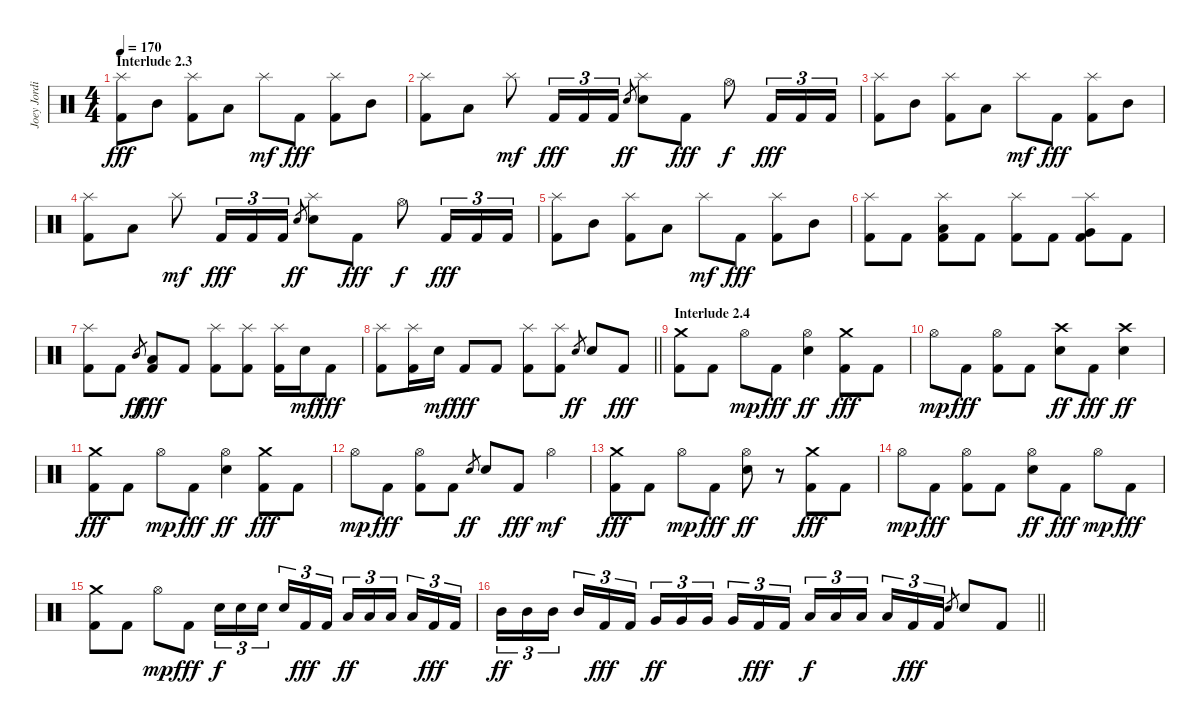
\track ("Joey Jordison" "Joey Jordi") {instrument percussion}
\staff {score}
\articulation defaults
\ts (4 4)
\section ("" "Interlude 2.3")
\tempo 170
\clef neutral
\ks c
("Splash (hit)" "Kick (hit) 2").8{dy fff} "Mid Tom (hit)".8 ("Splash (hit)" "Kick (hit) 2").8 "Low Tom (hit)".8 "Splash (hit)".8{dy mf} "Kick (hit) 2".8{dy fff} ("Splash (hit)" "Kick (hit) 2").8 "Mid Tom (hit)".8 |
("Splash (hit)" "Kick (hit) 2").8 "Low Tom (hit)".8 "Splash (hit)".8{dy mf} "Kick (hit) 2".16{tu (3 2) dy fff} "Kick (hit) 2".16{tu (3 2)} "Kick (hit) 2".16{tu (3 2)} "Electric Snare (hit)".8{gr dy ff} ("Splash (hit)" "Electric Snare (hit)").8 "Kick (hit) 2".8{dy fff} "Hi-Hat (open)".8{dy f} "Kick (hit) 2".16{tu (3 2) dy fff} "Kick (hit) 2".16{tu (3 2)} "Kick (hit) 2".16{tu (3 2)} |
("Splash (hit)" "Kick (hit) 2").8 "Mid Tom (hit)".8 ("Splash (hit)" "Kick (hit) 2").8 "Low Tom (hit)".8 "Splash (hit)".8{dy mf} "Kick (hit) 2".8{dy fff} ("Splash (hit)" "Kick (hit) 2").8 "Mid Tom (hit)".8 |
("Splash (hit)" "Kick (hit) 2").8 "Low Tom (hit)".8 "Splash (hit)".8{dy mf} "Kick (hit) 2".16{tu (3 2) dy fff} "Kick (hit) 2".16{tu (3 2)} "Kick (hit) 2".16{tu (3 2)} "Electric Snare (hit)".8{gr dy ff} ("Splash (hit)" "Electric Snare (hit)").8 "Kick (hit) 2".8{dy fff} "Hi-Hat (open)".8{dy f} "Kick (hit) 2".16{tu (3 2) dy fff} "Kick (hit) 2".16{tu (3 2)} "Kick (hit) 2".16{tu (3 2)} |
("Splash (hit)" "Kick (hit) 2").8 "Mid Tom (hit)".8 ("Splash (hit)" "Kick (hit) 2").8 "Low Tom (hit)".8 "Splash (hit)".8{dy mf} "Kick (hit) 2".8{dy fff} ("Splash (hit)" "Kick (hit) 2").8 "Mid Tom (hit)".8 |
("Splash (hit)" "Kick (hit) 2").8 "Kick (hit) 2".8 ("Splash (hit)" "Low Tom (hit)" "Kick (hit) 2").8 "Kick (hit) 2".8 ("Splash (hit)" "Kick (hit) 2").8 "Kick (hit) 2".8 ("Splash (hit)" "Very Low Tom (hit)" "Kick (hit) 2").8 "Kick (hit) 2".8 |
("Splash (hit)" "Kick (hit) 2").8 "Kick (hit) 2".8 "Mid Tom (hit)".8{gr dy ff} ("Low Tom (hit)" "Kick (hit) 2").8{dy fff} "Kick (hit) 2".8 ("Splash (hit)" "Kick (hit) 2").8 ("Splash (hit)" "Kick (hit) 2").8 ("Splash (hit)" "Kick (hit) 2").16 "Electric Snare (hit)".16{dy mf} "Kick (hit) 2".8{dy fff} |
\barLineRight lightlight
("Splash (hit)" "Kick (hit) 2").8 ("Splash (hit)" "Kick (hit) 2").16 "Electric Snare (hit)".16{dy mf} "Kick (hit) 2".8{dy fff} "Kick (hit) 2".8 ("Splash (hit)" "Kick (hit) 2").8 ("Splash (hit)" "Kick (hit) 2").8 "Electric Snare (hit)".8{gr dy ff} "Electric Snare (hit)".8 "Kick (hit) 2".8{dy fff} |
\section ("" "Interlude 2.4")
("Crash medium (hit)" "Kick (hit) 2").8 "Kick (hit) 2".8 "Hi-Hat (open)".8{dy mp} "Kick (hit) 2".8{dy fff} ("Hi-Hat (open)" "Electric Snare (hit)").4{dy ff} ("Crash medium (hit)" "Kick (hit) 2").8{dy fff} "Kick (hit) 2".8 |
"Hi-Hat (open)".8{dy mp} "Kick (hit) 2".8{dy fff} ("Hi-Hat (open)" "Kick (hit) 2").8 "Kick (hit) 2".8 ("Crash high (hit)" "Electric Snare (hit)").8{dy ff} "Kick (hit) 2".8{dy fff} ("Crash high (hit)" "Electric Snare (hit)").4{dy ff} |
("Crash medium (hit)" "Kick (hit) 2").8{dy fff} "Kick (hit) 2".8 "Hi-Hat (open)".8{dy mp} "Kick (hit) 2".8{dy fff} ("Hi-Hat (open)" "Electric Snare (hit)").4{dy ff} ("Crash medium (hit)" "Kick (hit) 2").8{dy fff} "Kick (hit) 2".8 |
"Hi-Hat (open)".8{dy mp} "Kick (hit) 2".8{dy fff} ("Hi-Hat (open)" "Kick (hit) 2").8 "Kick (hit) 2".8 "Electric Snare (hit)".8{gr dy ff} "Electric Snare (hit)".8 "Kick (hit) 2".8{dy fff} "Hi-Hat (open)".4{dy mf} |
("Crash medium (hit)" "Kick (hit) 2").8{dy fff} "Kick (hit) 2".8 "Hi-Hat (open)".8{dy mp} "Kick (hit) 2".8{dy fff} ("Hi-Hat (open)" "Electric Snare (hit)").8{dy ff} r.8 ("Crash medium (hit)" "Kick (hit) 2").8{dy fff} "Kick (hit) 2".8 |
"Hi-Hat (open)".8{dy mp} "Kick (hit) 2".8{dy fff} ("Hi-Hat (open)" "Kick (hit) 2").8 "Kick (hit) 2".8 ("Hi-Hat (open)" "Electric Snare (hit)").8{dy ff} "Kick (hit) 2".8{dy fff} "Hi-Hat (open)".8{dy mp} "Kick (hit) 2".8{dy fff} |
("Crash medium (hit)" "Kick (hit) 2").8 "Kick (hit) 2".8 "Hi-Hat (open)".8{dy mp} "Kick (hit) 2".8{dy fff} "Electric Snare (hit)".16{tu (3 2) dy f} "Electric Snare (hit)".16{tu (3 2)} "Electric Snare (hit)".16{tu (3 2) beam splitsecondary} "Electric Snare (hit)".16{tu (3 2)} "Kick (hit) 2".16{tu (3 2) dy fff} "Kick (hit) 2".16{tu (3 2)} "Low Tom (hit)".16{tu (3 2) dy ff} "Low Tom (hit)".16{tu (3 2)} "Low Tom (hit)".16{tu (3 2) beam splitsecondary} "Low Tom (hit)".16{tu (3 2)} "Kick (hit) 2".16{tu (3 2) dy fff} "Kick (hit) 2".16{tu (3 2)} |
\barLineRight lightlight "Mid Tom (hit)".16{tu (3 2) dy ff} "Mid Tom (hit)".16{tu (3 2)} "Mid Tom (hit)".16{tu (3 2) beam splitsecondary} "Mid Tom (hit)".16{tu (3 2)} "Kick (hit) 2".16{tu (3 2) dy fff} "Kick (hit) 2".16{tu (3 2)} "Very Low Tom (hit)".16{tu (3 2) dy ff} "Very Low Tom (hit)".16{tu (3 2)} "Very Low Tom (hit)".16{tu (3 2) beam splitsecondary} "Very Low Tom (hit)".16{tu (3 2)} "Kick (hit) 2".16{tu (3 2) dy fff} "Kick (hit) 2".16{tu (3 2)} "Low Tom (hit)".16{tu (3 2) dy f} "Low Tom (hit)".16{tu (3 2)} "Low Tom (hit)".16{tu (3 2) beam splitsecondary} "Low Tom (hit)".16{tu (3 2)} "Kick (hit) 2".16{tu (3 2) dy fff} "Kick (hit) 2".16{tu (3 2)} "Electric Snare (hit)".8{gr} "Electric Snare (hit)".8 "Kick (hit) 2".8
